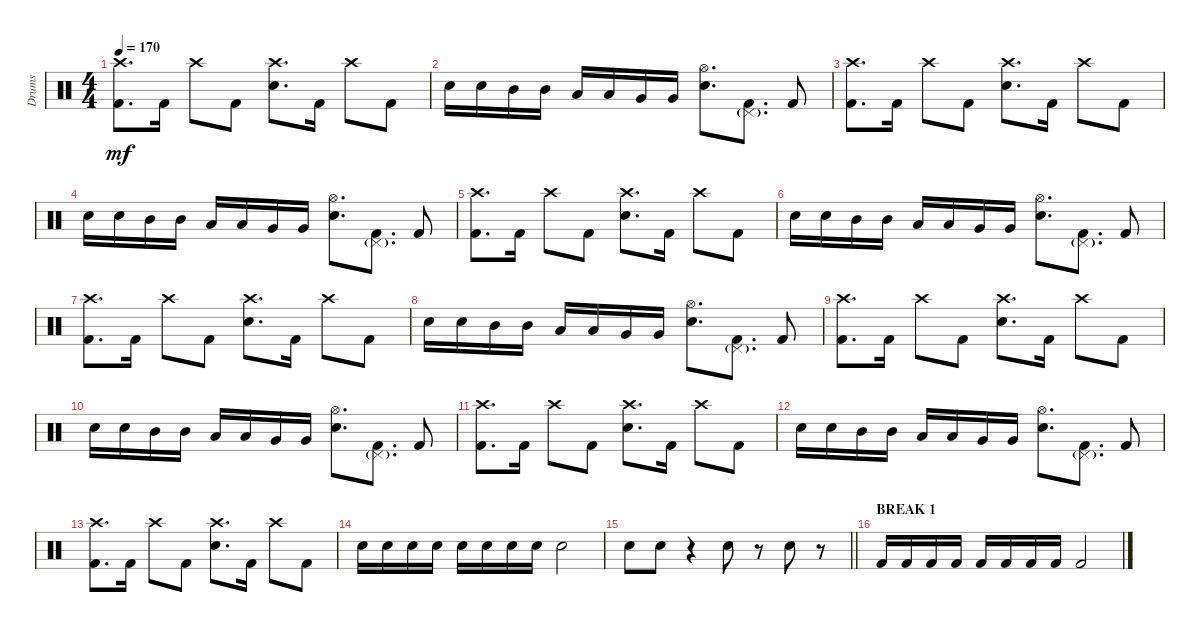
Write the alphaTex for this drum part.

\track ("Drums" "Drums") {instrument percussion}
\staff
\articulation defaults
\ts (4 4)
\tempo 170
\clef neutral
\ks c
("Crash high (hit)" "Kick (hit) 2").8{d dy mf} "Kick (hit) 2".16 "Crash high (hit)".8 "Kick (hit) 2".8 ("Crash high (hit)" "Electric Snare (hit)").8{d} "Kick (hit) 2".16 "Crash high (hit)".8 "Kick (hit) 2".8 |
"Electric Snare (hit)".16 "Electric Snare (hit)".16 "Mid Tom (hit)".16 "Mid Tom (hit)".16 "Low Tom (hit)".16 "Low Tom (hit)".16 "Very Low Tom (hit)".16 "Very Low Tom (hit)".16 ("Hi-Hat (open)" "Electric Snare (hit)").8{d} ("Pedal Hi-Hat (hit)"{g} "Kick (hit) 2").8{d} "Kick (hit) 2".8 |
("Crash high (hit)" "Kick (hit) 2").8{d} "Kick (hit) 2".16 "Crash high (hit)".8 "Kick (hit) 2".8 ("Crash high (hit)" "Electric Snare (hit)").8{d} "Kick (hit) 2".16 "Crash high (hit)".8 "Kick (hit) 2".8 |
"Electric Snare (hit)".16 "Electric Snare (hit)".16 "Mid Tom (hit)".16 "Mid Tom (hit)".16 "Low Tom (hit)".16 "Low Tom (hit)".16 "Very Low Tom (hit)".16 "Very Low Tom (hit)".16 ("Hi-Hat (open)" "Electric Snare (hit)").8{d} ("Pedal Hi-Hat (hit)"{g} "Kick (hit) 2").8{d} "Kick (hit) 2".8 |
("Crash high (hit)" "Kick (hit) 2").8{d} "Kick (hit) 2".16 "Crash high (hit)".8 "Kick (hit) 2".8 ("Crash high (hit)" "Electric Snare (hit)").8{d} "Kick (hit) 2".16 "Crash high (hit)".8 "Kick (hit) 2".8 |
"Electric Snare (hit)".16 "Electric Snare (hit)".16 "Mid Tom (hit)".16 "Mid Tom (hit)".16 "Low Tom (hit)".16 "Low Tom (hit)".16 "Very Low Tom (hit)".16 "Very Low Tom (hit)".16 ("Hi-Hat (open)" "Electric Snare (hit)").8{d} ("Pedal Hi-Hat (hit)"{g} "Kick (hit) 2").8{d} "Kick (hit) 2".8 |
("Crash high (hit)" "Kick (hit) 2").8{d} "Kick (hit) 2".16 "Crash high (hit)".8 "Kick (hit) 2".8 ("Crash high (hit)" "Electric Snare (hit)").8{d} "Kick (hit) 2".16 "Crash high (hit)".8 "Kick (hit) 2".8 |
"Electric Snare (hit)".16 "Electric Snare (hit)".16 "Mid Tom (hit)".16 "Mid Tom (hit)".16 "Low Tom (hit)".16 "Low Tom (hit)".16 "Very Low Tom (hit)".16 "Very Low Tom (hit)".16 ("Hi-Hat (open)" "Electric Snare (hit)").8{d} ("Pedal Hi-Hat (hit)"{g} "Kick (hit) 2").8{d} "Kick (hit) 2".8 |
("Crash high (hit)" "Kick (hit) 2").8{d} "Kick (hit) 2".16 "Crash high (hit)".8 "Kick (hit) 2".8 ("Crash high (hit)" "Electric Snare (hit)").8{d} "Kick (hit) 2".16 "Crash high (hit)".8 "Kick (hit) 2".8 |
"Electric Snare (hit)".16 "Electric Snare (hit)".16 "Mid Tom (hit)".16 "Mid Tom (hit)".16 "Low Tom (hit)".16 "Low Tom (hit)".16 "Very Low Tom (hit)".16 "Very Low Tom (hit)".16 ("Hi-Hat (open)" "Electric Snare (hit)").8{d} ("Pedal Hi-Hat (hit)"{g} "Kick (hit) 2").8{d} "Kick (hit) 2".8 |
("Crash high (hit)" "Kick (hit) 2").8{d} "Kick (hit) 2".16 "Crash high (hit)".8 "Kick (hit) 2".8 ("Crash high (hit)" "Electric Snare (hit)").8{d} "Kick (hit) 2".16 "Crash high (hit)".8 "Kick (hit) 2".8 |
"Electric Snare (hit)".16 "Electric Snare (hit)".16 "Mid Tom (hit)".16 "Mid Tom (hit)".16 "Low Tom (hit)".16 "Low Tom (hit)".16 "Very Low Tom (hit)".16 "Very Low Tom (hit)".16 ("Hi-Hat (open)" "Electric Snare (hit)").8{d} ("Pedal Hi-Hat (hit)"{g} "Kick (hit) 2").8{d} "Kick (hit) 2".8 |
("Crash high (hit)" "Kick (hit) 2").8{d} "Kick (hit) 2".16 "Crash high (hit)".8 "Kick (hit) 2".8 ("Crash high (hit)" "Electric Snare (hit)").8{d} "Kick (hit) 2".16 "Crash high (hit)".8 "Kick (hit) 2".8 |
"Snare (hit) 2".16 "Snare (hit) 2".16 "Snare (hit) 2".16 "Snare (hit) 2".16 "Snare (hit) 2".16 "Snare (hit) 2".16 "Snare (hit) 2".16 "Snare (hit) 2".16 "Snare (hit) 2".2 |
\barLineRight lightlight "Snare (hit) 2".8 "Snare (hit) 2".8
r.4 "Snare (hit) 2".8 r.8 "Snare (hit) 2".8 r.8 |
\section ("" "BREAK 1")
"Kick (hit) 2".16 "Kick (hit) 2".16 "Kick (hit) 2".16 "Kick (hit) 2".16 "Kick (hit) 2".16 "Kick (hit) 2".16 "Kick (hit) 2".16 "Kick (hit) 2".16 "Kick (hit) 2".2
